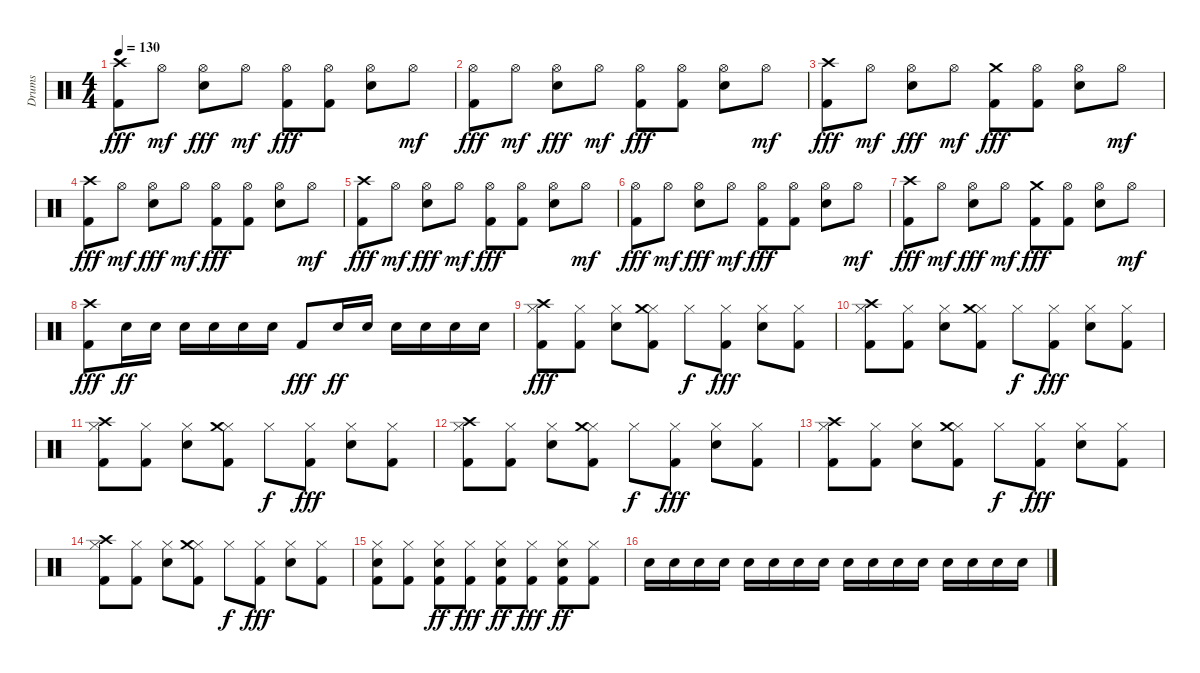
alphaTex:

\track ("Drums" "Drums") {instrument percussion}
\staff {score}
\articulation defaults
\ts (4 4)
\tempo 130
\clef neutral
\ks c
("Crash high (hit)" "Kick (hit) 2").8{dy fff} "Hi-Hat (open)".8{dy mf} ("Hi-Hat (open)" "Snare (hit) 2").8{dy fff} "Hi-Hat (open)".8{dy mf} ("Hi-Hat (open)" "Kick (hit) 2").8{dy fff} ("Hi-Hat (open)" "Kick (hit) 2").8 ("Hi-Hat (open)" "Snare (hit) 2").8 "Hi-Hat (open)".8{dy mf} |
("Hi-Hat (open)" "Kick (hit) 2").8{dy fff} "Hi-Hat (open)".8{dy mf} ("Hi-Hat (open)" "Snare (hit) 2").8{dy fff} "Hi-Hat (open)".8{dy mf} ("Hi-Hat (open)" "Kick (hit) 2").8{dy fff} ("Hi-Hat (open)" "Kick (hit) 2").8 ("Hi-Hat (open)" "Snare (hit) 2").8 "Hi-Hat (open)".8{dy mf} |
("Crash high (hit)" "Kick (hit) 2").8{dy fff} "Hi-Hat (open)".8{dy mf} ("Hi-Hat (open)" "Snare (hit) 2").8{dy fff} "Hi-Hat (open)".8{dy mf} ("Crash medium (hit)" "Kick (hit) 2").8{dy fff} ("Hi-Hat (open)" "Kick (hit) 2").8 ("Hi-Hat (open)" "Snare (hit) 2").8 "Hi-Hat (open)".8{dy mf} |
("Crash high (hit)" "Kick (hit) 2").8{dy fff} "Hi-Hat (open)".8{dy mf} ("Hi-Hat (open)" "Snare (hit) 2").8{dy fff} "Hi-Hat (open)".8{dy mf} ("Hi-Hat (open)" "Kick (hit) 2").8{dy fff} ("Hi-Hat (open)" "Kick (hit) 2").8 ("Hi-Hat (open)" "Snare (hit) 2").8 "Hi-Hat (open)".8{dy mf} |
("Crash high (hit)" "Kick (hit) 2").8{dy fff} "Hi-Hat (open)".8{dy mf} ("Hi-Hat (open)" "Snare (hit) 2").8{dy fff} "Hi-Hat (open)".8{dy mf} ("Hi-Hat (open)" "Kick (hit) 2").8{dy fff} ("Hi-Hat (open)" "Kick (hit) 2").8 ("Hi-Hat (open)" "Snare (hit) 2").8 "Hi-Hat (open)".8{dy mf} |
("Hi-Hat (open)" "Kick (hit) 2").8{dy fff} "Hi-Hat (open)".8{dy mf} ("Hi-Hat (open)" "Snare (hit) 2").8{dy fff} "Hi-Hat (open)".8{dy mf} ("Hi-Hat (open)" "Kick (hit) 2").8{dy fff} ("Hi-Hat (open)" "Kick (hit) 2").8 ("Hi-Hat (open)" "Snare (hit) 2").8 "Hi-Hat (open)".8{dy mf} |
("Crash high (hit)" "Kick (hit) 2").8{dy fff} "Hi-Hat (open)".8{dy mf} ("Hi-Hat (open)" "Snare (hit) 2").8{dy fff} "Hi-Hat (open)".8{dy mf} ("Crash medium (hit)" "Kick (hit) 2").8{dy fff} ("Hi-Hat (open)" "Kick (hit) 2").8 ("Hi-Hat (open)" "Snare (hit) 2").8 "Hi-Hat (open)".8{dy mf} |
("Crash high (hit)" "Kick (hit) 2").8{dy fff} "Snare (hit) 2".16{dy ff} "Snare (hit) 2".16 "Snare (hit) 2".16 "Snare (hit) 2".16 "Snare (hit) 2".16 "Snare (hit) 2".16 "Kick (hit) 2".8{dy fff} "Snare (hit) 2".16{dy ff} "Snare (hit) 2".16 "Snare (hit) 2".16 "Snare (hit) 2".16 "Snare (hit) 2".16 "Snare (hit) 2".16 |
("Hi-Hat (closed)" "Crash high (hit)" "Kick (hit) 2").8{dy fff} ("Hi-Hat (closed)" "Kick (hit) 2").8 ("Hi-Hat (closed)" "Snare (hit) 2").8 ("Hi-Hat (closed)" "Crash medium (hit)" "Kick (hit) 2").8 "Hi-Hat (closed)".8{dy f} ("Hi-Hat (closed)" "Kick (hit) 2").8{dy fff} ("Hi-Hat (closed)" "Snare (hit) 2").8 ("Hi-Hat (closed)" "Kick (hit) 2").8 |
("Hi-Hat (closed)" "Crash high (hit)" "Kick (hit) 2").8 ("Hi-Hat (closed)" "Kick (hit) 2").8 ("Hi-Hat (closed)" "Snare (hit) 2").8 ("Hi-Hat (closed)" "Crash medium (hit)" "Kick (hit) 2").8 "Hi-Hat (closed)".8{dy f} ("Hi-Hat (closed)" "Kick (hit) 2").8{dy fff} ("Hi-Hat (closed)" "Snare (hit) 2").8 ("Hi-Hat (closed)" "Kick (hit) 2").8 |
("Hi-Hat (closed)" "Crash high (hit)" "Kick (hit) 2").8 ("Hi-Hat (closed)" "Kick (hit) 2").8 ("Hi-Hat (closed)" "Snare (hit) 2").8 ("Hi-Hat (closed)" "Crash medium (hit)" "Kick (hit) 2").8 "Hi-Hat (closed)".8{dy f} ("Hi-Hat (closed)" "Kick (hit) 2").8{dy fff} ("Hi-Hat (closed)" "Snare (hit) 2").8 ("Hi-Hat (closed)" "Kick (hit) 2").8 |
("Hi-Hat (closed)" "Crash high (hit)" "Kick (hit) 2").8 ("Hi-Hat (closed)" "Kick (hit) 2").8 ("Hi-Hat (closed)" "Snare (hit) 2").8 ("Hi-Hat (closed)" "Crash medium (hit)" "Kick (hit) 2").8 "Hi-Hat (closed)".8{dy f} ("Hi-Hat (closed)" "Kick (hit) 2").8{dy fff} ("Hi-Hat (closed)" "Snare (hit) 2").8 ("Hi-Hat (closed)" "Kick (hit) 2").8 |
("Hi-Hat (closed)" "Crash high (hit)" "Kick (hit) 2").8 ("Hi-Hat (closed)" "Kick (hit) 2").8 ("Hi-Hat (closed)" "Snare (hit) 2").8 ("Hi-Hat (closed)" "Crash medium (hit)" "Kick (hit) 2").8 "Hi-Hat (closed)".8{dy f} ("Hi-Hat (closed)" "Kick (hit) 2").8{dy fff} ("Hi-Hat (closed)" "Snare (hit) 2").8 ("Hi-Hat (closed)" "Kick (hit) 2").8 |
("Hi-Hat (closed)" "Crash high (hit)" "Kick (hit) 2").8 ("Hi-Hat (closed)" "Kick (hit) 2").8 ("Hi-Hat (closed)" "Snare (hit) 2").8 ("Hi-Hat (closed)" "Crash medium (hit)" "Kick (hit) 2").8 "Hi-Hat (closed)".8{dy f} ("Hi-Hat (closed)" "Kick (hit) 2").8{dy fff} ("Hi-Hat (closed)" "Snare (hit) 2").8 ("Hi-Hat (closed)" "Kick (hit) 2").8 |
("Hi-Hat (closed)" "Snare (hit) 2" "Kick (hit) 2").8 ("Hi-Hat (closed)" "Kick (hit) 2").8 ("Hi-Hat (closed)" "Snare (hit) 2" "Kick (hit) 2").8{dy ff} ("Hi-Hat (closed)" "Kick (hit) 2").8{dy fff} ("Hi-Hat (closed)" "Snare (hit) 2" "Kick (hit) 2").8{dy ff} ("Hi-Hat (closed)" "Kick (hit) 2").8{dy fff} ("Hi-Hat (closed)" "Snare (hit) 2" "Kick (hit) 2").8{dy ff} ("Hi-Hat (closed)" "Kick (hit) 2").8 |
"Snare (hit) 2".16 "Snare (hit) 2".16 "Snare (hit) 2".16 "Snare (hit) 2".16 "Snare (hit) 2".16 "Snare (hit) 2".16 "Snare (hit) 2".16 "Snare (hit) 2".16 "Snare (hit) 2".16 "Snare (hit) 2".16 "Snare (hit) 2".16 "Snare (hit) 2".16 "Snare (hit) 2".16 "Snare (hit) 2".16 "Snare (hit) 2".16 "Snare (hit) 2".16
